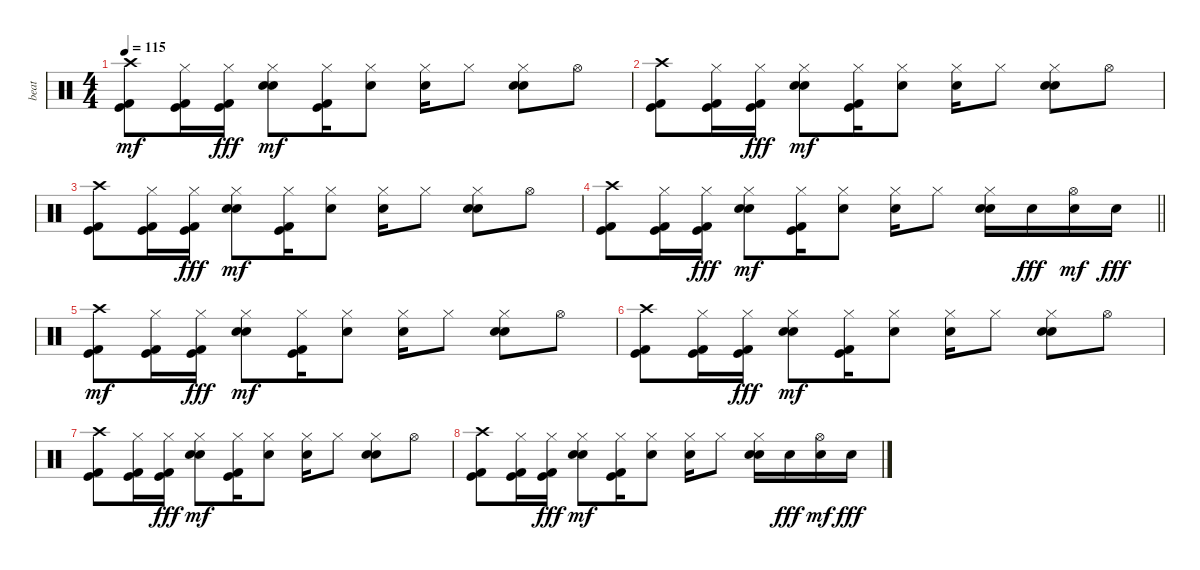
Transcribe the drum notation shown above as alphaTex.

\track ("beat" "beat") {instrument percussion}
\staff {score}
\articulation defaults
\ts (4 4)
\tempo 115
\clef neutral
\ks c
("Kick (hit)" "Kick (hit) 2" "Crash high (hit)").8{dy mf volume 3} ("Kick (hit)" "Kick (hit) 2" "Hi-Hat (closed)").16 ("Kick (hit)" "Kick (hit) 2" "Hi-Hat (closed)").16{dy fff} ("Snare (hit) 2" "Electric Snare (hit)" "Hi-Hat (closed)").8{dy mf} ("Kick (hit)" "Kick (hit) 2" "Hi-Hat (closed)").16 ("Electric Snare (hit)" "Hi-Hat (closed)").8 ("Electric Snare (hit)" "Hi-Hat (closed)").16 "Hi-Hat (closed)".8 ("Snare (hit) 2" "Electric Snare (hit)" "Hi-Hat (closed)").8 "Hi-Hat (open)".8 |
("Kick (hit)" "Kick (hit) 2" "Crash high (hit)").8 ("Kick (hit)" "Kick (hit) 2" "Hi-Hat (closed)").16 ("Kick (hit)" "Kick (hit) 2" "Hi-Hat (closed)").16{dy fff} ("Snare (hit) 2" "Electric Snare (hit)" "Hi-Hat (closed)").8{dy mf} ("Kick (hit)" "Kick (hit) 2" "Hi-Hat (closed)").16 ("Electric Snare (hit)" "Hi-Hat (closed)").8 ("Electric Snare (hit)" "Hi-Hat (closed)").16 "Hi-Hat (closed)".8 ("Snare (hit) 2" "Electric Snare (hit)" "Hi-Hat (closed)").8 "Hi-Hat (open)".8 |
("Kick (hit)" "Kick (hit) 2" "Crash high (hit)").8 ("Kick (hit)" "Kick (hit) 2" "Hi-Hat (closed)").16 ("Kick (hit)" "Kick (hit) 2" "Hi-Hat (closed)").16{dy fff} ("Snare (hit) 2" "Electric Snare (hit)" "Hi-Hat (closed)").8{dy mf} ("Kick (hit)" "Kick (hit) 2" "Hi-Hat (closed)").16 ("Electric Snare (hit)" "Hi-Hat (closed)").8 ("Electric Snare (hit)" "Hi-Hat (closed)").16 "Hi-Hat (closed)".8 ("Snare (hit) 2" "Electric Snare (hit)" "Hi-Hat (closed)").8 "Hi-Hat (open)".8 |
\barLineRight lightlight
("Kick (hit)" "Kick (hit) 2" "Crash high (hit)").8 ("Kick (hit)" "Kick (hit) 2" "Hi-Hat (closed)").16 ("Kick (hit)" "Kick (hit) 2" "Hi-Hat (closed)").16{dy fff} ("Snare (hit) 2" "Electric Snare (hit)" "Hi-Hat (closed)").8{dy mf} ("Kick (hit)" "Kick (hit) 2" "Hi-Hat (closed)").16 ("Electric Snare (hit)" "Hi-Hat (closed)").8 ("Electric Snare (hit)" "Hi-Hat (closed)").16 "Hi-Hat (closed)".8 ("Snare (hit) 2" "Electric Snare (hit)" "Hi-Hat (closed)").16 "Electric Snare (hit)".16{dy fff} ("Electric Snare (hit)" "Hi-Hat (open)").16{dy mf} "Electric Snare (hit)".16{dy fff} |
("Kick (hit)" "Kick (hit) 2" "Crash high (hit)").8{dy mf volume 0} ("Kick (hit)" "Kick (hit) 2" "Hi-Hat (closed)").16 ("Kick (hit)" "Kick (hit) 2" "Hi-Hat (closed)").16{dy fff} ("Snare (hit) 2" "Electric Snare (hit)" "Hi-Hat (closed)").8{dy mf} ("Kick (hit)" "Kick (hit) 2" "Hi-Hat (closed)").16 ("Electric Snare (hit)" "Hi-Hat (closed)").8 ("Electric Snare (hit)" "Hi-Hat (closed)").16 "Hi-Hat (closed)".8 ("Snare (hit) 2" "Electric Snare (hit)" "Hi-Hat (closed)").8 "Hi-Hat (open)".8 |
("Kick (hit)" "Kick (hit) 2" "Crash high (hit)").8 ("Kick (hit)" "Kick (hit) 2" "Hi-Hat (closed)").16 ("Kick (hit)" "Kick (hit) 2" "Hi-Hat (closed)").16{dy fff} ("Snare (hit) 2" "Electric Snare (hit)" "Hi-Hat (closed)").8{dy mf} ("Kick (hit)" "Kick (hit) 2" "Hi-Hat (closed)").16 ("Electric Snare (hit)" "Hi-Hat (closed)").8 ("Electric Snare (hit)" "Hi-Hat (closed)").16 "Hi-Hat (closed)".8 ("Snare (hit) 2" "Electric Snare (hit)" "Hi-Hat (closed)").8 "Hi-Hat (open)".8 |
("Kick (hit)" "Kick (hit) 2" "Crash high (hit)").8 ("Kick (hit)" "Kick (hit) 2" "Hi-Hat (closed)").16 ("Kick (hit)" "Kick (hit) 2" "Hi-Hat (closed)").16{dy fff} ("Snare (hit) 2" "Electric Snare (hit)" "Hi-Hat (closed)").8{dy mf} ("Kick (hit)" "Kick (hit) 2" "Hi-Hat (closed)").16 ("Electric Snare (hit)" "Hi-Hat (closed)").8 ("Electric Snare (hit)" "Hi-Hat (closed)").16 "Hi-Hat (closed)".8 ("Snare (hit) 2" "Electric Snare (hit)" "Hi-Hat (closed)").8 "Hi-Hat (open)".8 |
("Kick (hit)" "Kick (hit) 2" "Crash high (hit)").8 ("Kick (hit)" "Kick (hit) 2" "Hi-Hat (closed)").16 ("Kick (hit)" "Kick (hit) 2" "Hi-Hat (closed)").16{dy fff} ("Snare (hit) 2" "Electric Snare (hit)" "Hi-Hat (closed)").8{dy mf} ("Kick (hit)" "Kick (hit) 2" "Hi-Hat (closed)").16 ("Electric Snare (hit)" "Hi-Hat (closed)").8 ("Electric Snare (hit)" "Hi-Hat (closed)").16 "Hi-Hat (closed)".8 ("Snare (hit) 2" "Electric Snare (hit)" "Hi-Hat (closed)").16 "Electric Snare (hit)".16{dy fff} ("Electric Snare (hit)" "Hi-Hat (open)").16{dy mf} "Electric Snare (hit)".16{dy fff}
